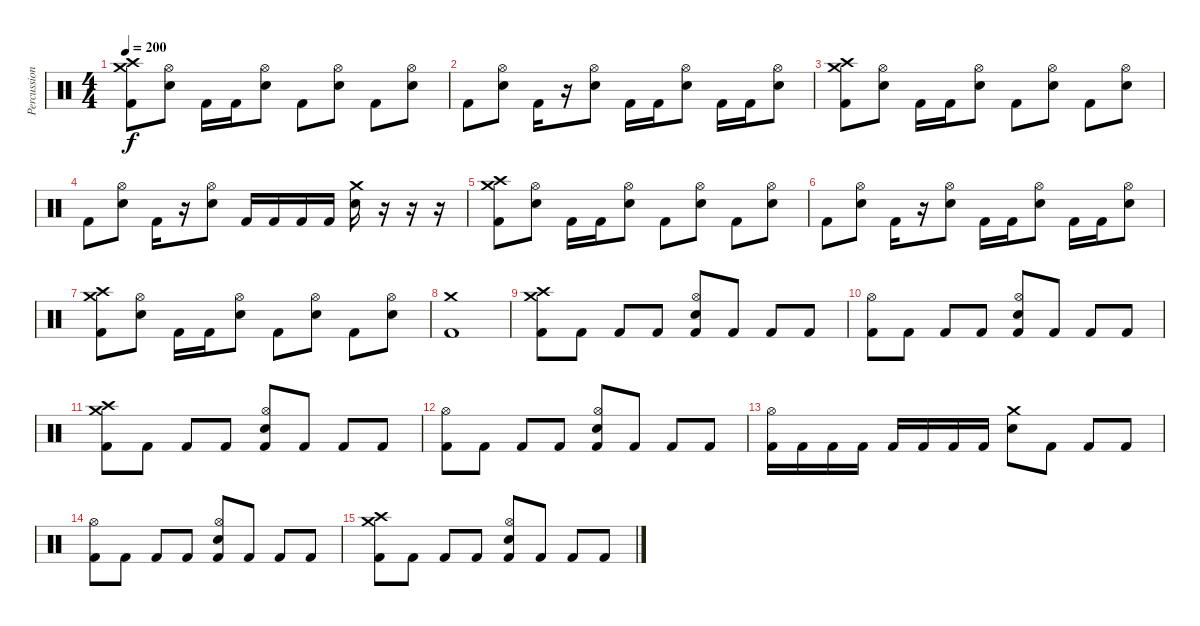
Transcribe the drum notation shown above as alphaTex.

\track ("Percussion" "Percussion") {instrument percussion}
\staff {score}
\articulation defaults
\ts (4 4)
\tempo 200
\clef neutral
\ks c
("Crash high (hit)" "Crash medium (hit)" "Kick (hit) 2").8{dy f} ("Hi-Hat (open)" "Snare (hit) 2").8 "Kick (hit) 2".16 "Kick (hit) 2".16 ("Hi-Hat (open)" "Snare (hit) 2").8 "Kick (hit) 2".8 ("Hi-Hat (open)" "Snare (hit) 2").8 "Kick (hit) 2".8 ("Hi-Hat (open)" "Snare (hit) 2").8 |
"Kick (hit) 2".8 ("Hi-Hat (open)" "Snare (hit) 2").8 "Kick (hit) 2".16 r.16 ("Hi-Hat (open)" "Snare (hit) 2").8 "Kick (hit) 2".16 "Kick (hit) 2".16 ("Hi-Hat (open)" "Snare (hit) 2").8 "Kick (hit) 2".16 "Kick (hit) 2".16 ("Hi-Hat (open)" "Snare (hit) 2").8 |
("Crash high (hit)" "Crash medium (hit)" "Kick (hit) 2").8 ("Hi-Hat (open)" "Snare (hit) 2").8 "Kick (hit) 2".16 "Kick (hit) 2".16 ("Hi-Hat (open)" "Snare (hit) 2").8 "Kick (hit) 2".8 ("Hi-Hat (open)" "Snare (hit) 2").8 "Kick (hit) 2".8 ("Hi-Hat (open)" "Snare (hit) 2").8 |
"Kick (hit) 2".8 ("Hi-Hat (open)" "Snare (hit) 2").8 "Kick (hit) 2".16 r.16 ("Hi-Hat (open)" "Snare (hit) 2").8 "Kick (hit) 2".16 "Kick (hit) 2".16 "Kick (hit) 2".16 "Kick (hit) 2".16 ("Crash medium (hit)" "Snare (hit) 2").16 r.16 r.16 r.16 |
("Crash high (hit)" "Crash medium (hit)" "Kick (hit) 2").8 ("Hi-Hat (open)" "Snare (hit) 2").8 "Kick (hit) 2".16 "Kick (hit) 2".16 ("Hi-Hat (open)" "Snare (hit) 2").8 "Kick (hit) 2".8 ("Hi-Hat (open)" "Snare (hit) 2").8 "Kick (hit) 2".8 ("Hi-Hat (open)" "Snare (hit) 2").8 |
"Kick (hit) 2".8 ("Hi-Hat (open)" "Snare (hit) 2").8 "Kick (hit) 2".16 r.16 ("Hi-Hat (open)" "Snare (hit) 2").8 "Kick (hit) 2".16 "Kick (hit) 2".16 ("Hi-Hat (open)" "Snare (hit) 2").8 "Kick (hit) 2".16 "Kick (hit) 2".16 ("Hi-Hat (open)" "Snare (hit) 2").8 |
("Crash high (hit)" "Crash medium (hit)" "Kick (hit) 2").8 ("Hi-Hat (open)" "Snare (hit) 2").8 "Kick (hit) 2".16 "Kick (hit) 2".16 ("Hi-Hat (open)" "Snare (hit) 2").8 "Kick (hit) 2".8 ("Hi-Hat (open)" "Snare (hit) 2").8 "Kick (hit) 2".8 ("Hi-Hat (open)" "Snare (hit) 2").8 |
("Crash medium (hit)" "Kick (hit) 2").1 |
("Crash high (hit)" "Crash medium (hit)" "Kick (hit) 2").8 "Kick (hit) 2".8 "Kick (hit) 2".8 "Kick (hit) 2".8 ("Hi-Hat (open)" "Snare (hit) 2" "Kick (hit) 2").8 "Kick (hit) 2".8 "Kick (hit) 2".8 "Kick (hit) 2".8 |
("Hi-Hat (open)" "Kick (hit) 2").8 "Kick (hit) 2".8 "Kick (hit) 2".8 "Kick (hit) 2".8 ("Hi-Hat (open)" "Snare (hit) 2" "Kick (hit) 2").8 "Kick (hit) 2".8 "Kick (hit) 2".8 "Kick (hit) 2".8 |
("Crash high (hit)" "Crash medium (hit)" "Kick (hit) 2").8 "Kick (hit) 2".8 "Kick (hit) 2".8 "Kick (hit) 2".8 ("Hi-Hat (open)" "Snare (hit) 2" "Kick (hit) 2").8 "Kick (hit) 2".8 "Kick (hit) 2".8 "Kick (hit) 2".8 |
("Hi-Hat (open)" "Kick (hit) 2").8 "Kick (hit) 2".8 "Kick (hit) 2".8 "Kick (hit) 2".8 ("Hi-Hat (open)" "Snare (hit) 2" "Kick (hit) 2").8 "Kick (hit) 2".8 "Kick (hit) 2".8 "Kick (hit) 2".8 |
("Hi-Hat (open)" "Kick (hit) 2").16 "Kick (hit) 2".16 "Kick (hit) 2".16 "Kick (hit) 2".16 "Kick (hit) 2".16 "Kick (hit) 2".16 "Kick (hit) 2".16 "Kick (hit) 2".16 ("Crash medium (hit)" "Snare (hit) 2").8 "Kick (hit) 2".8 "Kick (hit) 2".8 "Kick (hit) 2".8 |
("Hi-Hat (open)" "Kick (hit) 2").8 "Kick (hit) 2".8 "Kick (hit) 2".8 "Kick (hit) 2".8 ("Hi-Hat (open)" "Snare (hit) 2" "Kick (hit) 2").8 "Kick (hit) 2".8 "Kick (hit) 2".8 "Kick (hit) 2".8 |
("Crash high (hit)" "Crash medium (hit)" "Kick (hit) 2").8 "Kick (hit) 2".8 "Kick (hit) 2".8 "Kick (hit) 2".8 ("Hi-Hat (open)" "Snare (hit) 2" "Kick (hit) 2").8 "Kick (hit) 2".8 "Kick (hit) 2".8 "Kick (hit) 2".8
